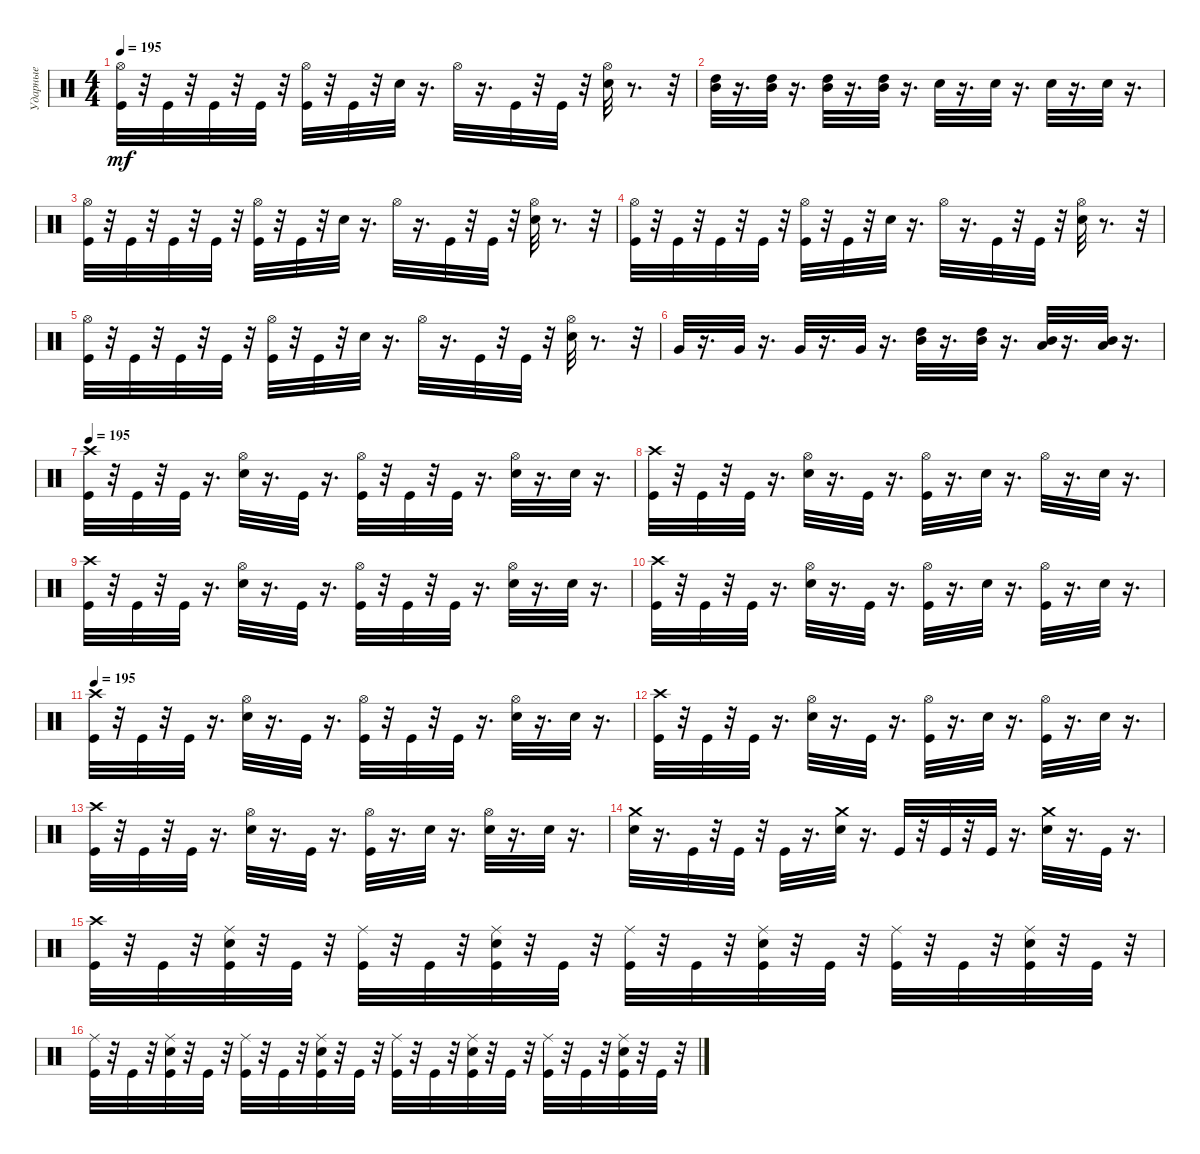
\track ("Ударные" "Ударные") {instrument percussion}
\staff {score}
\articulation defaults
\ts (4 4)
\tempo 195
\clef neutral
\ks c
("Kick (hit)" "Hi-Hat (open)").32{dy mf} r.32 "Kick (hit)".32 r.32 "Kick (hit)".32 r.32 "Kick (hit)".32 r.32 ("Kick (hit)" "Hi-Hat (open)").32 r.32 "Kick (hit)".32 r.32 "Electric Snare (hit)".32 r.16{d} "Hi-Hat (open)".32 r.16{d} "Kick (hit)".32 r.32 "Kick (hit)".32 r.32 ("Electric Snare (hit)" "Hi-Hat (open)").32 r.8{d} r.32 |
("Mid Tom (hit)" "High Tom (hit)").32 r.16{d} ("Mid Tom (hit)" "High Tom (hit)").32 r.16{d} ("High Tom (hit)" "Mid Tom (hit)").32 r.16{d} ("High Tom (hit)" "Mid Tom (hit)").32 r.16{d} "Electric Snare (hit)".32 r.16{d} "Electric Snare (hit)".32 r.16{d} "Electric Snare (hit)".32 r.16{d} "Electric Snare (hit)".32 r.16{d} |
("Kick (hit)" "Hi-Hat (open)").32 r.32 "Kick (hit)".32 r.32 "Kick (hit)".32 r.32 "Kick (hit)".32 r.32 ("Kick (hit)" "Hi-Hat (open)").32 r.32 "Kick (hit)".32 r.32 "Electric Snare (hit)".32 r.16{d} "Hi-Hat (open)".32 r.16{d} "Kick (hit)".32 r.32 "Kick (hit)".32 r.32 ("Hi-Hat (open)" "Electric Snare (hit)").32 r.8{d} r.32 |
("Kick (hit)" "Hi-Hat (open)").32 r.32 "Kick (hit)".32 r.32 "Kick (hit)".32 r.32 "Kick (hit)".32 r.32 ("Kick (hit)" "Hi-Hat (open)").32 r.32 "Kick (hit)".32 r.32 "Electric Snare (hit)".32 r.16{d} "Hi-Hat (open)".32 r.16{d} "Kick (hit)".32 r.32 "Kick (hit)".32 r.32 ("Electric Snare (hit)" "Hi-Hat (open)").32 r.8{d} r.32 |
("Kick (hit)" "Hi-Hat (open)").32 r.32 "Kick (hit)".32 r.32 "Kick (hit)".32 r.32 "Kick (hit)".32 r.32 ("Kick (hit)" "Hi-Hat (open)").32 r.32 "Kick (hit)".32 r.32 "Electric Snare (hit)".32 r.16{d} "Hi-Hat (open)".32 r.16{d} "Kick (hit)".32 r.32 "Kick (hit)".32 r.32 ("Electric Snare (hit)" "Hi-Hat (open)").32 r.8{d} r.32 |
"Very Low Tom (hit)".32 r.16{d} "Very Low Tom (hit)".32 r.16{d} "Very Low Tom (hit)".32 r.16{d} "Very Low Tom (hit)".32 r.16{d} ("Mid Tom (hit)" "High Tom (hit)").32 r.16{d} ("Mid Tom (hit)" "High Tom (hit)").32 r.16{d} ("Low Tom (hit)" "Mid Tom (hit)").32 r.16{d} ("Low Tom (hit)" "Mid Tom (hit)").32 r.16{d} |
\tempo 195
("Kick (hit)" "Crash high (hit)").32 r.32 "Kick (hit)".32 r.32 "Kick (hit)".32 r.16{d} ("Hi-Hat (open)" "Electric Snare (hit)").32 r.16{d} "Kick (hit)".32 r.16{d} ("Kick (hit)" "Hi-Hat (open)").32 r.32 "Kick (hit)".32 r.32 "Kick (hit)".32 r.16{d} ("Hi-Hat (open)" "Electric Snare (hit)").32 r.16{d} "Electric Snare (hit)".32 r.16{d} |
("Crash high (hit)" "Kick (hit)").32 r.32 "Kick (hit)".32 r.32 "Kick (hit)".32 r.16{d} ("Electric Snare (hit)" "Hi-Hat (open)").32 r.16{d} "Kick (hit)".32 r.16{d} ("Kick (hit)" "Hi-Hat (open)").32 r.16{d} "Electric Snare (hit)".32 r.16{d} "Hi-Hat (open)".32 r.16{d} "Electric Snare (hit)".32 r.16{d} |
("Crash high (hit)" "Kick (hit)").32 r.32 "Kick (hit)".32 r.32 "Kick (hit)".32 r.16{d} ("Electric Snare (hit)" "Hi-Hat (open)").32 r.16{d} "Kick (hit)".32 r.16{d} ("Kick (hit)" "Hi-Hat (open)").32 r.32 "Kick (hit)".32 r.32 "Kick (hit)".32 r.16{d} ("Electric Snare (hit)" "Hi-Hat (open)").32 r.16{d} "Electric Snare (hit)".32 r.16{d} |
("Crash high (hit)" "Kick (hit)").32 r.32 "Kick (hit)".32 r.32 "Kick (hit)".32 r.16{d} ("Electric Snare (hit)" "Hi-Hat (open)").32 r.16{d} "Kick (hit)".32 r.16{d} ("Kick (hit)" "Hi-Hat (open)").32 r.16{d} "Electric Snare (hit)".32 r.16{d} ("Kick (hit)" "Hi-Hat (open)").32 r.16{d} "Electric Snare (hit)".32 r.16{d} |
\tempo 195
("Crash high (hit)" "Kick (hit)").32 r.32 "Kick (hit)".32 r.32 "Kick (hit)".32 r.16{d} ("Electric Snare (hit)" "Hi-Hat (open)").32 r.16{d} "Kick (hit)".32 r.16{d} ("Kick (hit)" "Hi-Hat (open)").32 r.32 "Kick (hit)".32 r.32 "Kick (hit)".32 r.16{d} ("Electric Snare (hit)" "Hi-Hat (open)").32 r.16{d} "Electric Snare (hit)".32 r.16{d} |
("Crash high (hit)" "Kick (hit)").32 r.32 "Kick (hit)".32 r.32 "Kick (hit)".32 r.16{d} ("Electric Snare (hit)" "Hi-Hat (open)").32 r.16{d} "Kick (hit)".32 r.16{d} ("Kick (hit)" "Hi-Hat (open)").32 r.16{d} "Electric Snare (hit)".32 r.16{d} ("Kick (hit)" "Hi-Hat (open)").32 r.16{d} "Electric Snare (hit)".32 r.16{d} |
("Crash high (hit)" "Kick (hit)").32 r.32 "Kick (hit)".32 r.32 "Kick (hit)".32 r.16{d} ("Electric Snare (hit)" "Hi-Hat (open)").32 r.16{d} "Kick (hit)".32 r.16{d} ("Kick (hit)" "Hi-Hat (open)").32 r.16{d} "Electric Snare (hit)".32 r.16{d} ("Electric Snare (hit)" "Hi-Hat (open)").32 r.16{d} "Electric Snare (hit)".32 r.16{d} |
("Crash medium (hit)" "Electric Snare (hit)").32 r.16{d} "Kick (hit)".32 r.32 "Kick (hit)".32 r.32 "Kick (hit)".32 r.16{d} ("Crash medium (hit)" "Electric Snare (hit)").32 r.16{d} "Kick (hit)".32 r.32 "Kick (hit)".32 r.32 "Kick (hit)".32 r.16{d} ("Crash medium (hit)" "Electric Snare (hit)").32 r.16{d} "Kick (hit)".32 r.16{d} |
("Crash high (hit)" "Kick (hit)").32 r.32 "Kick (hit)".32 r.32 ("Electric Snare (hit)" "Kick (hit)" "Ride (middle)").32 r.32 "Kick (hit)".32 r.32 ("Ride (middle)" "Kick (hit)").32 r.32 "Kick (hit)".32 r.32 ("Ride (middle)" "Electric Snare (hit)" "Kick (hit)").32 r.32 "Kick (hit)".32 r.32 ("Ride (middle)" "Kick (hit)").32 r.32 "Kick (hit)".32 r.32 ("Ride (middle)" "Kick (hit)" "Electric Snare (hit)").32 r.32 "Kick (hit)".32 r.32 ("Ride (middle)" "Kick (hit)").32 r.32 "Kick (hit)".32 r.32 ("Ride (middle)" "Electric Snare (hit)" "Kick (hit)").32 r.32 "Kick (hit)".32 r.32 |
("Ride (middle)" "Kick (hit)").32 r.32 "Kick (hit)".32 r.32 ("Electric Snare (hit)" "Kick (hit)" "Ride (middle)").32 r.32 "Kick (hit)".32 r.32 ("Ride (middle)" "Kick (hit)").32 r.32 "Kick (hit)".32 r.32 ("Ride (middle)" "Electric Snare (hit)" "Kick (hit)").32 r.32 "Kick (hit)".32 r.32 ("Ride (middle)" "Kick (hit)").32 r.32 "Kick (hit)".32 r.32 ("Ride (middle)" "Kick (hit)" "Electric Snare (hit)").32 r.32 "Kick (hit)".32 r.32 ("Ride (middle)" "Kick (hit)").32 r.32 "Kick (hit)".32 r.32 ("Ride (middle)" "Electric Snare (hit)" "Kick (hit)").32 r.32 "Kick (hit)".32 r.32
